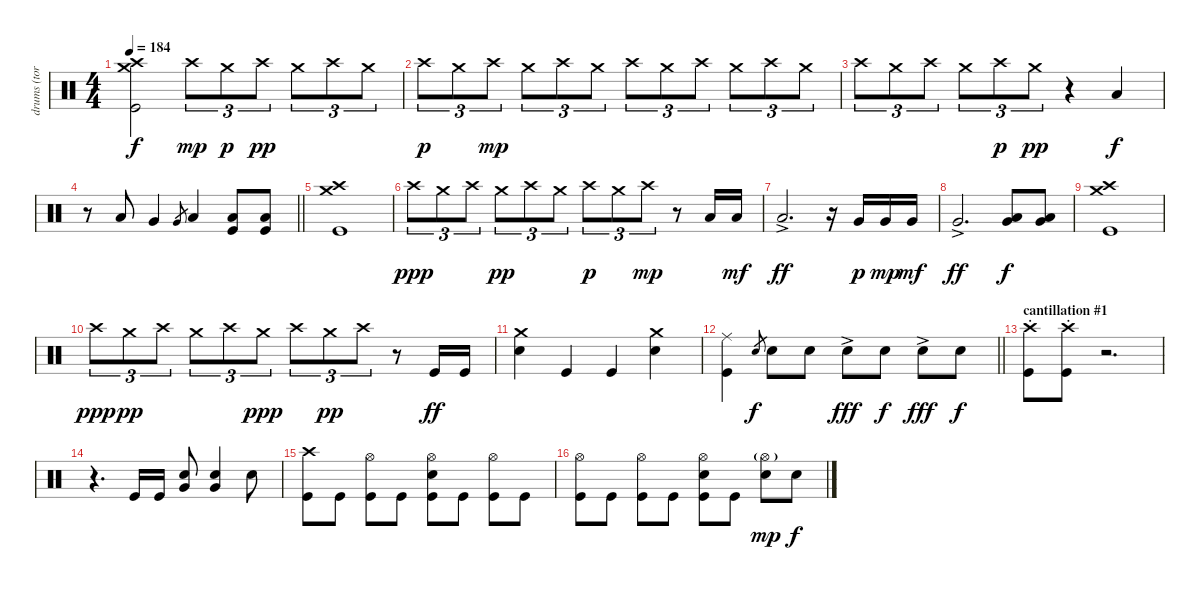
\track ("drums (tora)" "drums (tor") {instrument percussion}
\staff {score}
\articulation defaults
\ts (4 4)
\tempo 184
\clef neutral
\ks c
("Crash high (hit)" "Crash medium (hit)" "Kick (hit)").2{dy f} "Crash high (hit)".8{tu (3 2) dy mp} "Crash medium (hit)".8{tu (3 2) dy p} "Crash high (hit)".8{tu (3 2) dy pp} "Crash medium (hit)".8{tu (3 2)} "Crash high (hit)".8{tu (3 2)} "Crash medium (hit)".8{tu (3 2)} |
"Crash high (hit)".8{tu (3 2) dy p} "Crash medium (hit)".8{tu (3 2)} "Crash high (hit)".8{tu (3 2) dy mp} "Crash medium (hit)".8{tu (3 2)} "Crash high (hit)".8{tu (3 2)} "Crash medium (hit)".8{tu (3 2)} "Crash high (hit)".8{tu (3 2)} "Crash medium (hit)".8{tu (3 2)} "Crash high (hit)".8{tu (3 2)} "Crash medium (hit)".8{tu (3 2)} "Crash high (hit)".8{tu (3 2)} "Crash medium (hit)".8{tu (3 2)} |
"Crash high (hit)".8{tu (3 2)} "Crash medium (hit)".8{tu (3 2)} "Crash high (hit)".8{tu (3 2)} "Crash medium (hit)".8{tu (3 2)} "Crash high (hit)".8{tu (3 2) dy p} "Crash medium (hit)".8{tu (3 2) dy pp} r.4 "Low Tom (hit)".4{dy f} |
\barLineRight lightlight
r.8 "Low Tom (hit)".8 "Very Low Tom (hit)".4 "Very Low Tom (hit)".8{gr} "Low Floor Tom (hit)".4 ("Low Floor Tom (hit)" "Kick (hit)").8 ("Low Floor Tom (hit)" "Kick (hit)").8 |
("Crash high (hit)" "Crash medium (hit)" "Kick (hit)").1 |
"Crash high (hit)".8{tu (3 2) dy ppp} "Crash medium (hit)".8{tu (3 2)} "Crash high (hit)".8{tu (3 2)} "Crash medium (hit)".8{tu (3 2) dy pp} "Crash high (hit)".8{tu (3 2)} "Crash medium (hit)".8{tu (3 2)} "Crash high (hit)".8{tu (3 2) dy p} "Crash medium (hit)".8{tu (3 2)} "Crash high (hit)".8{tu (3 2) dy mp} r.8 "Low Tom (hit)".16 "Low Tom (hit)".16{dy mf} |
"Low Tom (hit)"{ac}.2{d dy ff} r.16 "Very Low Tom (hit)".16{dy p} "Very Low Tom (hit)".16{dy mp} "Very Low Tom (hit)".16{dy mf} |
"Very Low Tom (hit)"{ac}.2{d dy ff} ("Very Low Tom (hit)" "Low Floor Tom (hit)").8{dy f} ("Very Low Tom (hit)" "Low Floor Tom (hit)").8 |
("Crash high (hit)" "Crash medium (hit)" "Kick (hit)").1 |
"Crash high (hit)".8{tu (3 2) dy ppp} "Crash medium (hit)".8{tu (3 2) dy pp} "Crash high (hit)".8{tu (3 2)} "Crash medium (hit)".8{tu (3 2)} "Crash high (hit)".8{tu (3 2)} "Crash medium (hit)".8{tu (3 2) dy ppp} "Crash high (hit)".8{tu (3 2)} "Crash medium (hit)".8{tu (3 2) dy pp} "Crash high (hit)".8{tu (3 2)} r.8 "Kick (hit)".16{dy ff} "Kick (hit)".16 |
("Crash medium (hit)" "Snare (hit) 2").4 "Kick (hit)".4 "Kick (hit)".4 ("Crash medium (hit)" "Snare (hit) 2").4 |
\barLineRight lightlight
("Ride (middle)" "Kick (hit)").4 "Snare (hit) 2".8{gr dy f} "Snare (hit) 2".8 "Snare (hit) 2".8 "Snare (hit) 2"{ac}.8{dy fff} "Snare (hit) 2".8{dy f} "Snare (hit) 2"{ac}.8{dy fff} "Snare (hit) 2".8{dy f} |
\section ("" "cantillation #1")
("Crash high (hit)"{st} "Kick (hit)"{st}).8 ("Crash high (hit)"{st} "Kick (hit)"{st}).8 r.2{d} |
r.4{d} "Kick (hit)".16 "Kick (hit)".16 ("Snare (hit) 2" "Very Low Tom (hit)").8 ("Snare (hit) 2" "Very Low Tom (hit)").4 "Snare (hit) 2".8 |
("Crash high (hit)" "Kick (hit)").8 "Kick (hit)".8 ("Hi-Hat (open)" "Kick (hit)").8 "Kick (hit)".8 ("Hi-Hat (open)" "Snare (hit) 2" "Kick (hit)").8 "Kick (hit)".8 ("Hi-Hat (open)" "Kick (hit)").8 "Kick (hit)".8 |
("Hi-Hat (open)" "Kick (hit)").8 "Kick (hit)".8 ("Hi-Hat (open)" "Kick (hit)").8 "Kick (hit)".8 ("Hi-Hat (open)" "Snare (hit) 2" "Kick (hit)").8 "Kick (hit)".8 ("Hi-Hat (open)"{g} "Snare (hit) 2").8{dy mp} "Snare (hit) 2".8{dy f}
